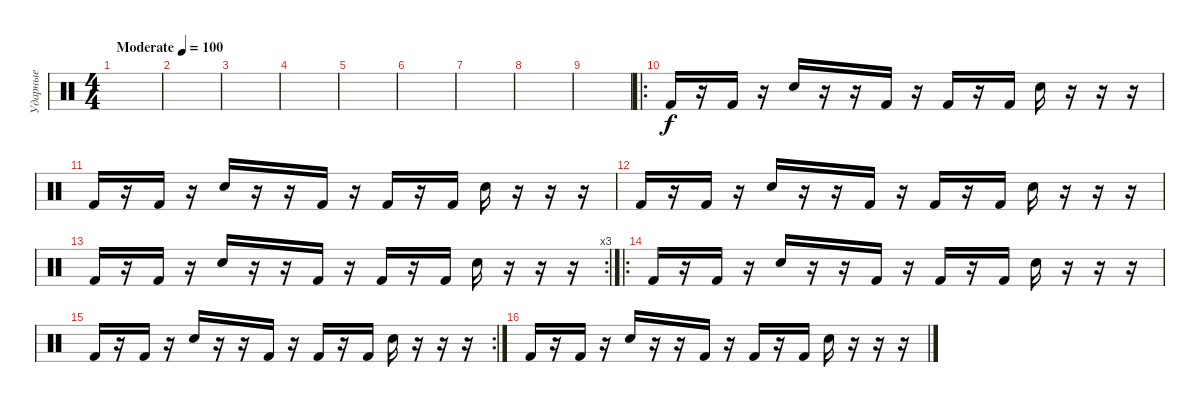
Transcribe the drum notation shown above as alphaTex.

\track ("Ударные" "Ударные") {instrument percussion}
\staff {score}
\articulation defaults
\ts (4 4)
\tempo (100 "Moderate")
\clef neutral
\ks c
|
|
|
|
|
|
|
|
|
\ro "Kick (hit) 2".16
r.16 "Kick (hit) 2".16 r.16 "Electric Snare (hit)".16 r.16 r.16 "Kick (hit) 2".16 r.16 "Kick (hit) 2".16 r.16 "Kick (hit) 2".16 "Electric Snare (hit)".16 r.16 r.16 r.16 |
"Kick (hit) 2".16 r.16 "Kick (hit) 2".16 r.16 "Electric Snare (hit)".16 r.16 r.16 "Kick (hit) 2".16 r.16 "Kick (hit) 2".16 r.16 "Kick (hit) 2".16 "Electric Snare (hit)".16 r.16 r.16 r.16 |
"Kick (hit) 2".16 r.16 "Kick (hit) 2".16 r.16 "Electric Snare (hit)".16 r.16 r.16 "Kick (hit) 2".16 r.16 "Kick (hit) 2".16 r.16 "Kick (hit) 2".16 "Electric Snare (hit)".16 r.16 r.16 r.16 |
\rc 3 "Kick (hit) 2".16
r.16 "Kick (hit) 2".16 r.16 "Electric Snare (hit)".16 r.16 r.16 "Kick (hit) 2".16 r.16 "Kick (hit) 2".16 r.16 "Kick (hit) 2".16 "Electric Snare (hit)".16 r.16 r.16 r.16 |
\ro "Kick (hit) 2".16
r.16 "Kick (hit) 2".16 r.16 "Electric Snare (hit)".16 r.16 r.16 "Kick (hit) 2".16 r.16 "Kick (hit) 2".16 r.16 "Kick (hit) 2".16 "Electric Snare (hit)".16 r.16 r.16 r.16 |
\rc 2 "Kick (hit) 2".16
r.16 "Kick (hit) 2".16 r.16 "Electric Snare (hit)".16 r.16 r.16 "Kick (hit) 2".16 r.16 "Kick (hit) 2".16 r.16 "Kick (hit) 2".16 "Electric Snare (hit)".16 r.16 r.16 r.16 |
"Kick (hit) 2".16 r.16 "Kick (hit) 2".16 r.16 "Electric Snare (hit)".16 r.16 r.16 "Kick (hit) 2".16 r.16 "Kick (hit) 2".16 r.16 "Kick (hit) 2".16 "Electric Snare (hit)".16 r.16 r.16 r.16
